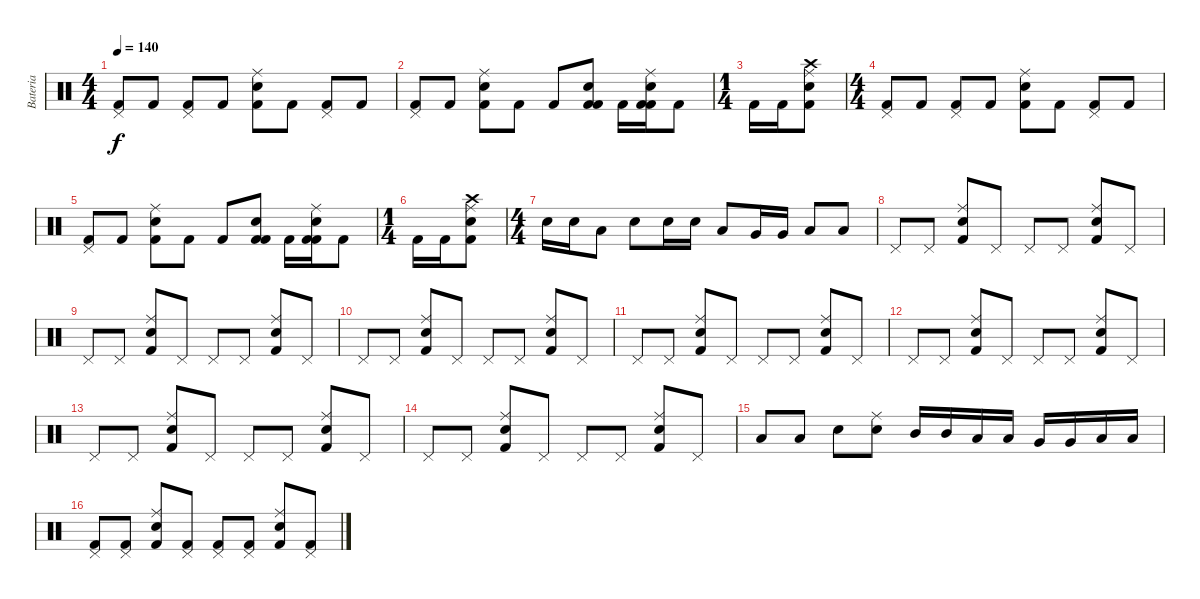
\track ("Bateria" "Bateria") {instrument percussion}
\staff {score}
\articulation defaults
\ts (4 4)
\tempo 140
\clef neutral
\ks c
("Pedal Hi-Hat (hit)" "Kick (hit) 2").8{dy f} "Kick (hit) 2".8 ("Pedal Hi-Hat (hit)" "Kick (hit) 2").8 "Kick (hit) 2".8 ("Electric Snare (hit)" "Ride (middle)" "Kick (hit) 2").8 "Kick (hit) 2".8 ("Pedal Hi-Hat (hit)" "Kick (hit) 2").8 "Kick (hit) 2".8 |
("Pedal Hi-Hat (hit)" "Kick (hit) 2").8 "Kick (hit) 2".8 ("Electric Snare (hit)" "Ride (middle)" "Kick (hit) 2").8 "Kick (hit) 2".8 "Kick (hit) 2".8 ("Kick (hit) 2" "Electric Snare (hit)" "Kick (hit) 2").8 "Kick (hit) 2".16 ("Kick (hit) 2" "Ride (middle)" "Electric Snare (hit)" "Kick (hit) 2").16 "Kick (hit) 2".8 |
\ts (1 4)
"Kick (hit) 2".16 "Kick (hit) 2".16 ("Kick (hit) 2" "Ride (middle)" "Crash high (hit)" "Electric Snare (hit)").8 |
\ts (4 4)
("Pedal Hi-Hat (hit)" "Kick (hit) 2").8 "Kick (hit) 2".8 ("Pedal Hi-Hat (hit)" "Kick (hit) 2").8 "Kick (hit) 2".8 ("Electric Snare (hit)" "Ride (middle)" "Kick (hit) 2").8 "Kick (hit) 2".8 ("Pedal Hi-Hat (hit)" "Kick (hit) 2").8 "Kick (hit) 2".8 |
("Pedal Hi-Hat (hit)" "Kick (hit) 2").8 "Kick (hit) 2".8 ("Electric Snare (hit)" "Ride (middle)" "Kick (hit) 2").8 "Kick (hit) 2".8 "Kick (hit) 2".8 ("Kick (hit) 2" "Electric Snare (hit)" "Kick (hit) 2").8 "Kick (hit) 2".16 ("Kick (hit) 2" "Ride (middle)" "Electric Snare (hit)" "Kick (hit) 2").16 "Kick (hit) 2".8 |
\ts (1 4)
"Kick (hit) 2".16 "Kick (hit) 2".16 ("Kick (hit) 2" "Ride (middle)" "Crash high (hit)" "Electric Snare (hit)").8 |
\ts (4 4)
"Electric Snare (hit)".16 "Electric Snare (hit)".16 "Low Tom (hit)".8 "Electric Snare (hit)".8 "Electric Snare (hit)".16 "Electric Snare (hit)".16 "Low Tom (hit)".8 "Very Low Tom (hit)".16 "Very Low Tom (hit)".16 "Low Floor Tom (hit)".8 "Low Floor Tom (hit)".8 |
"Pedal Hi-Hat (hit)".8 "Pedal Hi-Hat (hit)".8 ("Kick (hit) 2" "Electric Snare (hit)" "Ride (middle)").8 "Pedal Hi-Hat (hit)".8 "Pedal Hi-Hat (hit)".8 "Pedal Hi-Hat (hit)".8 ("Kick (hit) 2" "Electric Snare (hit)" "Ride (middle)").8 "Pedal Hi-Hat (hit)".8 |
"Pedal Hi-Hat (hit)".8 "Pedal Hi-Hat (hit)".8 ("Kick (hit) 2" "Electric Snare (hit)" "Ride (middle)").8 "Pedal Hi-Hat (hit)".8 "Pedal Hi-Hat (hit)".8 "Pedal Hi-Hat (hit)".8 ("Kick (hit) 2" "Electric Snare (hit)" "Ride (middle)").8 "Pedal Hi-Hat (hit)".8 |
"Pedal Hi-Hat (hit)".8 "Pedal Hi-Hat (hit)".8 ("Kick (hit) 2" "Electric Snare (hit)" "Ride (middle)").8 "Pedal Hi-Hat (hit)".8 "Pedal Hi-Hat (hit)".8 "Pedal Hi-Hat (hit)".8 ("Kick (hit) 2" "Electric Snare (hit)" "Ride (middle)").8 "Pedal Hi-Hat (hit)".8 |
"Pedal Hi-Hat (hit)".8 "Pedal Hi-Hat (hit)".8 ("Kick (hit) 2" "Electric Snare (hit)" "Ride (middle)").8 "Pedal Hi-Hat (hit)".8 "Pedal Hi-Hat (hit)".8 "Pedal Hi-Hat (hit)".8 ("Kick (hit) 2" "Electric Snare (hit)" "Ride (middle)").8 "Pedal Hi-Hat (hit)".8 |
"Pedal Hi-Hat (hit)".8 "Pedal Hi-Hat (hit)".8 ("Kick (hit) 2" "Electric Snare (hit)" "Ride (middle)").8 "Pedal Hi-Hat (hit)".8 "Pedal Hi-Hat (hit)".8 "Pedal Hi-Hat (hit)".8 ("Kick (hit) 2" "Electric Snare (hit)" "Ride (middle)").8 "Pedal Hi-Hat (hit)".8 |
"Pedal Hi-Hat (hit)".8 "Pedal Hi-Hat (hit)".8 ("Kick (hit) 2" "Electric Snare (hit)" "Ride (middle)").8 "Pedal Hi-Hat (hit)".8 "Pedal Hi-Hat (hit)".8 "Pedal Hi-Hat (hit)".8 ("Kick (hit) 2" "Electric Snare (hit)" "Ride (middle)").8 "Pedal Hi-Hat (hit)".8 |
"Pedal Hi-Hat (hit)".8 "Pedal Hi-Hat (hit)".8 ("Kick (hit) 2" "Electric Snare (hit)" "Ride (middle)").8 "Pedal Hi-Hat (hit)".8 "Pedal Hi-Hat (hit)".8 "Pedal Hi-Hat (hit)".8 ("Kick (hit) 2" "Electric Snare (hit)" "Ride (middle)").8 "Pedal Hi-Hat (hit)".8 |
"Low Tom (hit)".8 "Low Tom (hit)".8 "Electric Snare (hit)".8 ("Electric Snare (hit)" "Ride (middle)").8 "Mid Tom (hit)".16 "Mid Tom (hit)".16 "Low Tom (hit)".16 "Low Tom (hit)".16 "Very Low Tom (hit)".16 "Very Low Tom (hit)".16 "Low Floor Tom (hit)".16 "Low Floor Tom (hit)".16 |
("Kick (hit) 2" "Pedal Hi-Hat (hit)").8 ("Kick (hit) 2" "Pedal Hi-Hat (hit)").8 ("Kick (hit) 2" "Electric Snare (hit)" "Ride (middle)").8 ("Kick (hit) 2" "Pedal Hi-Hat (hit)").8 ("Kick (hit) 2" "Pedal Hi-Hat (hit)").8 ("Kick (hit) 2" "Pedal Hi-Hat (hit)").8 ("Kick (hit) 2" "Electric Snare (hit)" "Ride (middle)").8 ("Kick (hit) 2" "Pedal Hi-Hat (hit)").8
